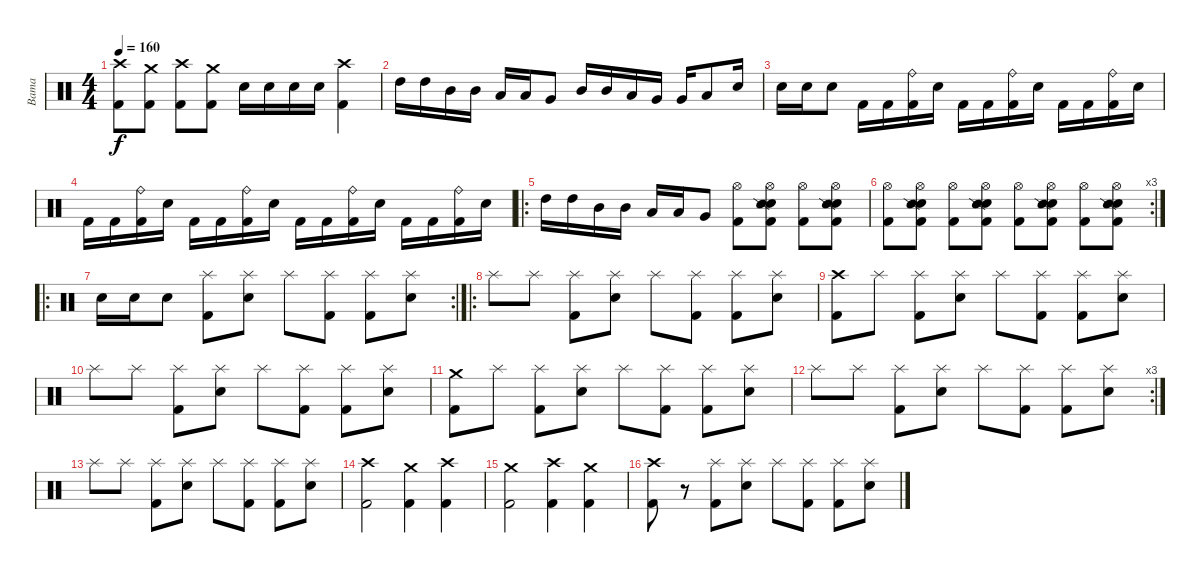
\track ("Bama" "Bama") {instrument percussion}
\staff {score}
\articulation defaults
\ts (4 4)
\tempo 160
\clef neutral
\ks c
("Crash high (hit)" "Kick (hit) 2").8{dy f} ("Crash medium (hit)" "Kick (hit) 2").8 ("Crash high (hit)" "Kick (hit) 2").8 ("Crash medium (hit)" "Kick (hit) 2").8 "Electric Snare (hit)".16 "Electric Snare (hit)".16 "Electric Snare (hit)".16 "Electric Snare (hit)".16 ("Crash high (hit)" "Kick (hit) 2").4 |
"High Tom (hit)".16 "High Tom (hit)".16 "Mid Tom (hit)".16 "Mid Tom (hit)".16 "Low Tom (hit)".16 "Low Tom (hit)".16 "Very Low Tom (hit)".8 "Mid Tom (hit)".16 "Mid Tom (hit)".16 "Low Tom (hit)".16 "Very Low Tom (hit)".16 "Very Low Tom (hit)".16 "Low Floor Tom (hit)".8 "Electric Snare (hit)".16 |
"Electric Snare (hit)".16 "Electric Snare (hit)".16 "Electric Snare (hit)".8 "Kick (hit) 2".16 "Kick (hit) 2".16 ("Ride (bell)" "Kick (hit) 2").16 "Electric Snare (hit)".16 "Kick (hit) 2".16 "Kick (hit) 2".16 ("Ride (bell)" "Kick (hit) 2").16 "Electric Snare (hit)".16 "Kick (hit) 2".16 "Kick (hit) 2".16 ("Ride (bell)" "Kick (hit) 2").16 "Electric Snare (hit)".16 |
"Kick (hit) 2".16 "Kick (hit) 2".16 ("Ride (bell)" "Kick (hit) 2").16 "Electric Snare (hit)".16 "Kick (hit) 2".16 "Kick (hit) 2".16 ("Ride (bell)" "Kick (hit) 2").16 "Electric Snare (hit)".16 "Kick (hit) 2".16 "Kick (hit) 2".16 ("Ride (bell)" "Kick (hit) 2").16 "Electric Snare (hit)".16 "Kick (hit) 2".16 "Kick (hit) 2".16 ("Ride (bell)" "Kick (hit) 2").16 "Electric Snare (hit)".16 |
\ro "High Tom (hit)".16 "High Tom (hit)".16 "Mid Tom (hit)".16 "Mid Tom (hit)".16 "Low Tom (hit)".16 "Low Tom (hit)".16 "Very Low Tom (hit)".8
("Hi-Hat (open)" "Kick (hit) 2").8 ("Hi-Hat (open)" "Electric Snare (hit)" "Snare (side stick) 2" "Kick (hit) 2").8 ("Hi-Hat (open)" "Kick (hit) 2").8 ("Hi-Hat (open)" "Electric Snare (hit)" "Snare (side stick) 2" "Kick (hit) 2").8 |
\rc 3
("Hi-Hat (open)" "Kick (hit) 2").8 ("Hi-Hat (open)" "Electric Snare (hit)" "Snare (side stick) 2" "Kick (hit) 2").8 ("Hi-Hat (open)" "Kick (hit) 2").8 ("Hi-Hat (open)" "Electric Snare (hit)" "Snare (side stick) 2" "Kick (hit) 2").8 ("Hi-Hat (open)" "Kick (hit) 2").8 ("Hi-Hat (open)" "Electric Snare (hit)" "Snare (side stick) 2" "Kick (hit) 2").8 ("Hi-Hat (open)" "Kick (hit) 2").8 ("Hi-Hat (open)" "Electric Snare (hit)" "Snare (side stick) 2" "Kick (hit) 2").8 |
\ro
\rc 2 "Electric Snare (hit)".16 "Electric Snare (hit)".16 "Electric Snare (hit)".8
("Splash (hit)" "Kick (hit) 2").8 ("Splash (hit)" "Electric Snare (hit)").8 "Splash (hit)".8 ("Splash (hit)" "Kick (hit) 2").8 ("Splash (hit)" "Kick (hit) 2").8 ("Splash (hit)" "Electric Snare (hit)").8 |
\ro "Splash (hit)".8 "Splash (hit)".8
("Splash (hit)" "Kick (hit) 2").8 ("Splash (hit)" "Electric Snare (hit)").8 "Splash (hit)".8 ("Splash (hit)" "Kick (hit) 2").8 ("Splash (hit)" "Kick (hit) 2").8 ("Splash (hit)" "Electric Snare (hit)").8 |
("Crash high (hit)" "Kick (hit) 2").8 "Splash (hit)".8 ("Splash (hit)" "Kick (hit) 2").8 ("Splash (hit)" "Electric Snare (hit)").8 "Splash (hit)".8 ("Splash (hit)" "Kick (hit) 2").8 ("Splash (hit)" "Kick (hit) 2").8 ("Splash (hit)" "Electric Snare (hit)").8 |
"Splash (hit)".8 "Splash (hit)".8 ("Splash (hit)" "Kick (hit) 2").8 ("Splash (hit)" "Electric Snare (hit)").8 "Splash (hit)".8 ("Splash (hit)" "Kick (hit) 2").8 ("Splash (hit)" "Kick (hit) 2").8 ("Splash (hit)" "Electric Snare (hit)").8 |
("Crash medium (hit)" "Kick (hit) 2").8 "Splash (hit)".8 ("Splash (hit)" "Kick (hit) 2").8 ("Splash (hit)" "Electric Snare (hit)").8 "Splash (hit)".8 ("Splash (hit)" "Kick (hit) 2").8 ("Splash (hit)" "Kick (hit) 2").8 ("Splash (hit)" "Electric Snare (hit)").8 |
\rc 3 "Splash (hit)".8 "Splash (hit)".8
("Splash (hit)" "Kick (hit) 2").8 ("Splash (hit)" "Electric Snare (hit)").8 "Splash (hit)".8 ("Splash (hit)" "Kick (hit) 2").8 ("Splash (hit)" "Kick (hit) 2").8 ("Splash (hit)" "Electric Snare (hit)").8 |
"Splash (hit)".8 "Splash (hit)".8 ("Splash (hit)" "Kick (hit) 2").8 ("Splash (hit)" "Electric Snare (hit)").8 "Splash (hit)".8 ("Splash (hit)" "Kick (hit) 2").8 ("Splash (hit)" "Kick (hit) 2").8 ("Splash (hit)" "Electric Snare (hit)").8 |
("Crash high (hit)" "Kick (hit) 2").2 ("Crash medium (hit)" "Kick (hit) 2").4 ("Crash high (hit)" "Kick (hit) 2").4 |
("Crash medium (hit)" "Kick (hit) 2").2 ("Crash high (hit)" "Kick (hit) 2").4 ("Crash medium (hit)" "Kick (hit) 2").4 |
("Crash high (hit)" "Kick (hit) 2").8 r.8 ("Splash (hit)" "Kick (hit) 2").8 ("Splash (hit)" "Electric Snare (hit)").8 "Splash (hit)".8 ("Splash (hit)" "Kick (hit) 2").8 ("Splash (hit)" "Kick (hit) 2").8 ("Splash (hit)" "Electric Snare (hit)").8
